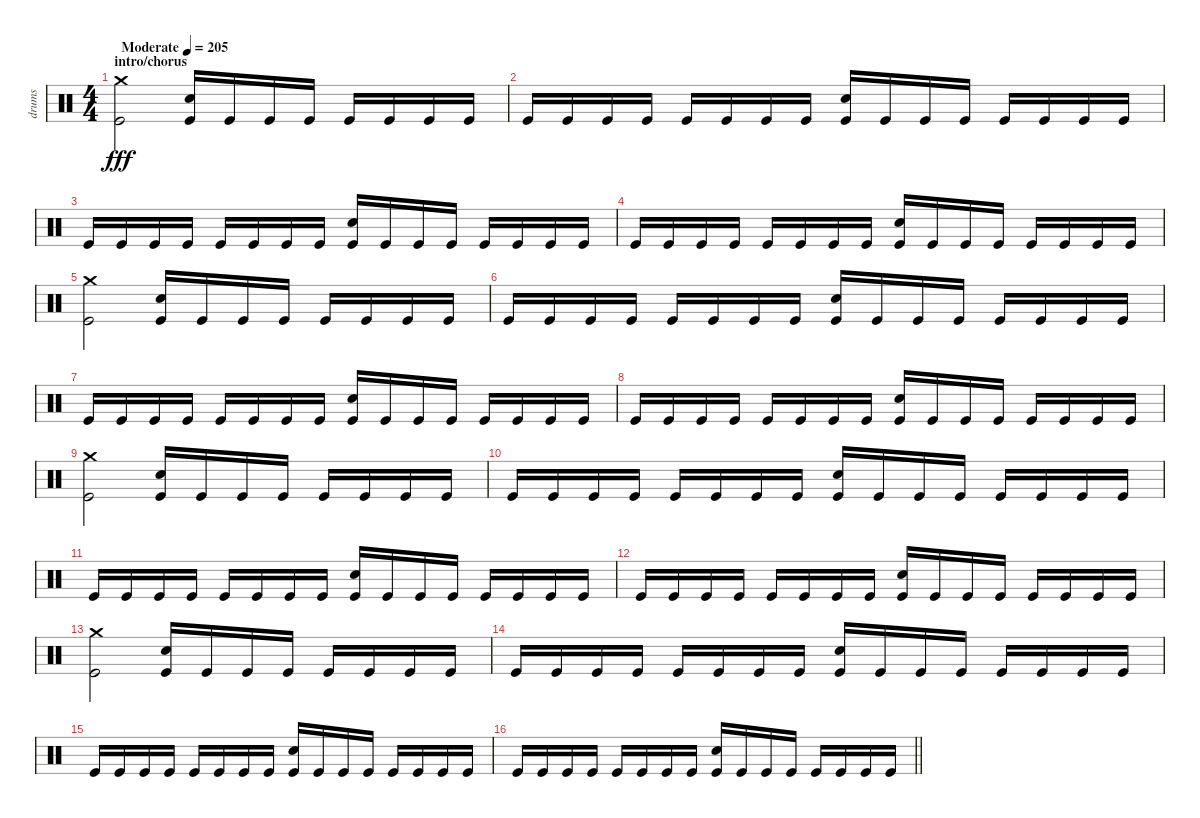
\track ("drums" "drums") {instrument percussion}
\staff {score}
\articulation defaults
\ts (4 4)
\section ("" "intro/chorus")
\tempo (205 "Moderate")
\clef neutral
\ks c
("Crash medium (hit)" "Kick (hit)").2{dy fff} ("Electric Snare (hit)" "Kick (hit)").16 "Kick (hit)".16 "Kick (hit)".16 "Kick (hit)".16 "Kick (hit)".16 "Kick (hit)".16 "Kick (hit)".16 "Kick (hit)".16 |
"Kick (hit)".16 "Kick (hit)".16 "Kick (hit)".16 "Kick (hit)".16 "Kick (hit)".16 "Kick (hit)".16 "Kick (hit)".16 "Kick (hit)".16 ("Electric Snare (hit)" "Kick (hit)").16 "Kick (hit)".16 "Kick (hit)".16 "Kick (hit)".16 "Kick (hit)".16 "Kick (hit)".16 "Kick (hit)".16 "Kick (hit)".16 |
"Kick (hit)".16 "Kick (hit)".16 "Kick (hit)".16 "Kick (hit)".16 "Kick (hit)".16 "Kick (hit)".16 "Kick (hit)".16 "Kick (hit)".16 ("Electric Snare (hit)" "Kick (hit)").16 "Kick (hit)".16 "Kick (hit)".16 "Kick (hit)".16 "Kick (hit)".16 "Kick (hit)".16 "Kick (hit)".16 "Kick (hit)".16 |
"Kick (hit)".16 "Kick (hit)".16 "Kick (hit)".16 "Kick (hit)".16 "Kick (hit)".16 "Kick (hit)".16 "Kick (hit)".16 "Kick (hit)".16 ("Electric Snare (hit)" "Kick (hit)").16 "Kick (hit)".16 "Kick (hit)".16 "Kick (hit)".16 "Kick (hit)".16 "Kick (hit)".16 "Kick (hit)".16 "Kick (hit)".16 |
("Crash medium (hit)" "Kick (hit)").2 ("Electric Snare (hit)" "Kick (hit)").16 "Kick (hit)".16 "Kick (hit)".16 "Kick (hit)".16 "Kick (hit)".16 "Kick (hit)".16 "Kick (hit)".16 "Kick (hit)".16 |
"Kick (hit)".16 "Kick (hit)".16 "Kick (hit)".16 "Kick (hit)".16 "Kick (hit)".16 "Kick (hit)".16 "Kick (hit)".16 "Kick (hit)".16 ("Electric Snare (hit)" "Kick (hit)").16 "Kick (hit)".16 "Kick (hit)".16 "Kick (hit)".16 "Kick (hit)".16 "Kick (hit)".16 "Kick (hit)".16 "Kick (hit)".16 |
"Kick (hit)".16 "Kick (hit)".16 "Kick (hit)".16 "Kick (hit)".16 "Kick (hit)".16 "Kick (hit)".16 "Kick (hit)".16 "Kick (hit)".16 ("Electric Snare (hit)" "Kick (hit)").16 "Kick (hit)".16 "Kick (hit)".16 "Kick (hit)".16 "Kick (hit)".16 "Kick (hit)".16 "Kick (hit)".16 "Kick (hit)".16 |
"Kick (hit)".16 "Kick (hit)".16 "Kick (hit)".16 "Kick (hit)".16 "Kick (hit)".16 "Kick (hit)".16 "Kick (hit)".16 "Kick (hit)".16 ("Electric Snare (hit)" "Kick (hit)").16 "Kick (hit)".16 "Kick (hit)".16 "Kick (hit)".16 "Kick (hit)".16 "Kick (hit)".16 "Kick (hit)".16 "Kick (hit)".16 |
("Crash medium (hit)" "Kick (hit)").2 ("Electric Snare (hit)" "Kick (hit)").16 "Kick (hit)".16 "Kick (hit)".16 "Kick (hit)".16 "Kick (hit)".16 "Kick (hit)".16 "Kick (hit)".16 "Kick (hit)".16 |
"Kick (hit)".16 "Kick (hit)".16 "Kick (hit)".16 "Kick (hit)".16 "Kick (hit)".16 "Kick (hit)".16 "Kick (hit)".16 "Kick (hit)".16 ("Electric Snare (hit)" "Kick (hit)").16 "Kick (hit)".16 "Kick (hit)".16 "Kick (hit)".16 "Kick (hit)".16 "Kick (hit)".16 "Kick (hit)".16 "Kick (hit)".16 |
"Kick (hit)".16 "Kick (hit)".16 "Kick (hit)".16 "Kick (hit)".16 "Kick (hit)".16 "Kick (hit)".16 "Kick (hit)".16 "Kick (hit)".16 ("Electric Snare (hit)" "Kick (hit)").16 "Kick (hit)".16 "Kick (hit)".16 "Kick (hit)".16 "Kick (hit)".16 "Kick (hit)".16 "Kick (hit)".16 "Kick (hit)".16 |
"Kick (hit)".16 "Kick (hit)".16 "Kick (hit)".16 "Kick (hit)".16 "Kick (hit)".16 "Kick (hit)".16 "Kick (hit)".16 "Kick (hit)".16 ("Electric Snare (hit)" "Kick (hit)").16 "Kick (hit)".16 "Kick (hit)".16 "Kick (hit)".16 "Kick (hit)".16 "Kick (hit)".16 "Kick (hit)".16 "Kick (hit)".16 |
("Crash medium (hit)" "Kick (hit)").2 ("Electric Snare (hit)" "Kick (hit)").16 "Kick (hit)".16 "Kick (hit)".16 "Kick (hit)".16 "Kick (hit)".16 "Kick (hit)".16 "Kick (hit)".16 "Kick (hit)".16 |
"Kick (hit)".16 "Kick (hit)".16 "Kick (hit)".16 "Kick (hit)".16 "Kick (hit)".16 "Kick (hit)".16 "Kick (hit)".16 "Kick (hit)".16 ("Electric Snare (hit)" "Kick (hit)").16 "Kick (hit)".16 "Kick (hit)".16 "Kick (hit)".16 "Kick (hit)".16 "Kick (hit)".16 "Kick (hit)".16 "Kick (hit)".16 |
"Kick (hit)".16 "Kick (hit)".16 "Kick (hit)".16 "Kick (hit)".16 "Kick (hit)".16 "Kick (hit)".16 "Kick (hit)".16 "Kick (hit)".16 ("Electric Snare (hit)" "Kick (hit)").16 "Kick (hit)".16 "Kick (hit)".16 "Kick (hit)".16 "Kick (hit)".16 "Kick (hit)".16 "Kick (hit)".16 "Kick (hit)".16 |
\barLineRight lightlight "Kick (hit)".16 "Kick (hit)".16 "Kick (hit)".16 "Kick (hit)".16 "Kick (hit)".16 "Kick (hit)".16 "Kick (hit)".16 "Kick (hit)".16
("Electric Snare (hit)" "Kick (hit)").16 "Kick (hit)".16 "Kick (hit)".16 "Kick (hit)".16 "Kick (hit)".16 "Kick (hit)".16 "Kick (hit)".16 "Kick (hit)".16
